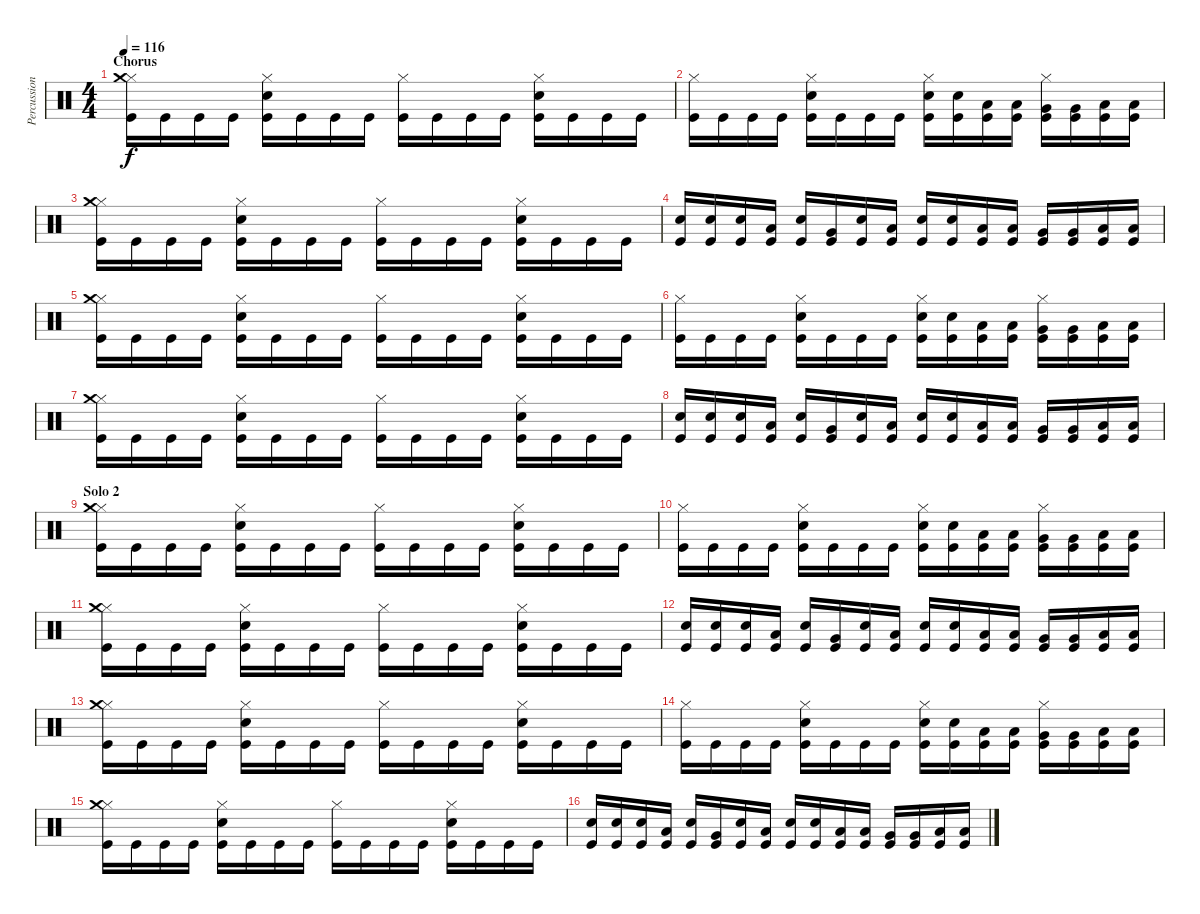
\track ("Percussion" "Percussion") {instrument percussion}
\staff {score}
\articulation defaults
\ts (4 4)
\section ("" "Chorus")
\tempo 116
\clef neutral
\ks c
("Hi-Hat (closed)" "Crash medium (hit)" "Kick (hit)").16{dy f} "Kick (hit)".16 "Kick (hit)".16 "Kick (hit)".16 ("Hi-Hat (closed)" "Snare (hit) 2" "Kick (hit)").16 "Kick (hit)".16 "Kick (hit)".16 "Kick (hit)".16 ("Hi-Hat (closed)" "Kick (hit)").16 "Kick (hit)".16 "Kick (hit)".16 "Kick (hit)".16 ("Hi-Hat (closed)" "Snare (hit) 2" "Kick (hit)").16 "Kick (hit)".16 "Kick (hit)".16 "Kick (hit)".16 |
("Hi-Hat (closed)" "Kick (hit)").16 "Kick (hit)".16 "Kick (hit)".16 "Kick (hit)".16 ("Hi-Hat (closed)" "Snare (hit) 2" "Kick (hit)").16 "Kick (hit)".16 "Kick (hit)".16 "Kick (hit)".16 ("Hi-Hat (closed)" "Snare (hit) 2" "Kick (hit)").16 ("Snare (hit) 2" "Kick (hit)").16 ("Low Tom (hit)" "Kick (hit)").16 ("Low Tom (hit)" "Kick (hit)").16 ("Hi-Hat (closed)" "Very Low Tom (hit)" "Kick (hit)").16 ("Very Low Tom (hit)" "Kick (hit)").16 ("Low Floor Tom (hit)" "Kick (hit)").16 ("Low Floor Tom (hit)" "Kick (hit)").16 |
("Hi-Hat (closed)" "Crash medium (hit)" "Kick (hit)").16 "Kick (hit)".16 "Kick (hit)".16 "Kick (hit)".16 ("Hi-Hat (closed)" "Snare (hit) 2" "Kick (hit)").16 "Kick (hit)".16 "Kick (hit)".16 "Kick (hit)".16 ("Hi-Hat (closed)" "Kick (hit)").16 "Kick (hit)".16 "Kick (hit)".16 "Kick (hit)".16 ("Hi-Hat (closed)" "Snare (hit) 2" "Kick (hit)").16 "Kick (hit)".16 "Kick (hit)".16 "Kick (hit)".16 |
("Snare (hit) 2" "Kick (hit)").16 ("Snare (hit) 2" "Kick (hit)").16 ("Snare (hit) 2" "Kick (hit)").16 ("Low Tom (hit)" "Kick (hit)").16 ("Snare (hit) 2" "Kick (hit)").16 ("Very Low Tom (hit)" "Kick (hit)").16 ("Snare (hit) 2" "Kick (hit)").16 ("Low Floor Tom (hit)" "Kick (hit)").16 ("Snare (hit) 2" "Kick (hit)").16 ("Snare (hit) 2" "Kick (hit)").16 ("Low Tom (hit)" "Kick (hit)").16 ("Low Tom (hit)" "Kick (hit)").16 ("Very Low Tom (hit)" "Kick (hit)").16 ("Very Low Tom (hit)" "Kick (hit)").16 ("Low Floor Tom (hit)" "Kick (hit)").16 ("Low Floor Tom (hit)" "Kick (hit)").16 |
("Hi-Hat (closed)" "Crash medium (hit)" "Kick (hit)").16 "Kick (hit)".16 "Kick (hit)".16 "Kick (hit)".16 ("Hi-Hat (closed)" "Snare (hit) 2" "Kick (hit)").16 "Kick (hit)".16 "Kick (hit)".16 "Kick (hit)".16 ("Hi-Hat (closed)" "Kick (hit)").16 "Kick (hit)".16 "Kick (hit)".16 "Kick (hit)".16 ("Hi-Hat (closed)" "Snare (hit) 2" "Kick (hit)").16 "Kick (hit)".16 "Kick (hit)".16 "Kick (hit)".16 |
("Hi-Hat (closed)" "Kick (hit)").16 "Kick (hit)".16 "Kick (hit)".16 "Kick (hit)".16 ("Hi-Hat (closed)" "Snare (hit) 2" "Kick (hit)").16 "Kick (hit)".16 "Kick (hit)".16 "Kick (hit)".16 ("Hi-Hat (closed)" "Snare (hit) 2" "Kick (hit)").16 ("Snare (hit) 2" "Kick (hit)").16 ("Low Tom (hit)" "Kick (hit)").16 ("Low Tom (hit)" "Kick (hit)").16 ("Hi-Hat (closed)" "Very Low Tom (hit)" "Kick (hit)").16 ("Very Low Tom (hit)" "Kick (hit)").16 ("Low Floor Tom (hit)" "Kick (hit)").16 ("Low Floor Tom (hit)" "Kick (hit)").16 |
("Hi-Hat (closed)" "Crash medium (hit)" "Kick (hit)").16 "Kick (hit)".16 "Kick (hit)".16 "Kick (hit)".16 ("Hi-Hat (closed)" "Snare (hit) 2" "Kick (hit)").16 "Kick (hit)".16 "Kick (hit)".16 "Kick (hit)".16 ("Hi-Hat (closed)" "Kick (hit)").16 "Kick (hit)".16 "Kick (hit)".16 "Kick (hit)".16 ("Hi-Hat (closed)" "Snare (hit) 2" "Kick (hit)").16 "Kick (hit)".16 "Kick (hit)".16 "Kick (hit)".16 |
("Snare (hit) 2" "Kick (hit)").16 ("Snare (hit) 2" "Kick (hit)").16 ("Snare (hit) 2" "Kick (hit)").16 ("Low Tom (hit)" "Kick (hit)").16 ("Snare (hit) 2" "Kick (hit)").16 ("Very Low Tom (hit)" "Kick (hit)").16 ("Snare (hit) 2" "Kick (hit)").16 ("Low Floor Tom (hit)" "Kick (hit)").16 ("Snare (hit) 2" "Kick (hit)").16 ("Snare (hit) 2" "Kick (hit)").16 ("Low Tom (hit)" "Kick (hit)").16 ("Low Tom (hit)" "Kick (hit)").16 ("Very Low Tom (hit)" "Kick (hit)").16 ("Very Low Tom (hit)" "Kick (hit)").16 ("Low Floor Tom (hit)" "Kick (hit)").16 ("Low Floor Tom (hit)" "Kick (hit)").16 |
\section ("" "Solo 2")
("Hi-Hat (closed)" "Crash medium (hit)" "Kick (hit)").16 "Kick (hit)".16 "Kick (hit)".16 "Kick (hit)".16 ("Hi-Hat (closed)" "Snare (hit) 2" "Kick (hit)").16 "Kick (hit)".16 "Kick (hit)".16 "Kick (hit)".16 ("Hi-Hat (closed)" "Kick (hit)").16 "Kick (hit)".16 "Kick (hit)".16 "Kick (hit)".16 ("Hi-Hat (closed)" "Snare (hit) 2" "Kick (hit)").16 "Kick (hit)".16 "Kick (hit)".16 "Kick (hit)".16 |
("Hi-Hat (closed)" "Kick (hit)").16 "Kick (hit)".16 "Kick (hit)".16 "Kick (hit)".16 ("Hi-Hat (closed)" "Snare (hit) 2" "Kick (hit)").16 "Kick (hit)".16 "Kick (hit)".16 "Kick (hit)".16 ("Hi-Hat (closed)" "Snare (hit) 2" "Kick (hit)").16 ("Snare (hit) 2" "Kick (hit)").16 ("Low Tom (hit)" "Kick (hit)").16 ("Low Tom (hit)" "Kick (hit)").16 ("Hi-Hat (closed)" "Very Low Tom (hit)" "Kick (hit)").16 ("Very Low Tom (hit)" "Kick (hit)").16 ("Low Floor Tom (hit)" "Kick (hit)").16 ("Low Floor Tom (hit)" "Kick (hit)").16 |
("Hi-Hat (closed)" "Crash medium (hit)" "Kick (hit)").16 "Kick (hit)".16 "Kick (hit)".16 "Kick (hit)".16 ("Hi-Hat (closed)" "Snare (hit) 2" "Kick (hit)").16 "Kick (hit)".16 "Kick (hit)".16 "Kick (hit)".16 ("Hi-Hat (closed)" "Kick (hit)").16 "Kick (hit)".16 "Kick (hit)".16 "Kick (hit)".16 ("Hi-Hat (closed)" "Snare (hit) 2" "Kick (hit)").16 "Kick (hit)".16 "Kick (hit)".16 "Kick (hit)".16 |
("Snare (hit) 2" "Kick (hit)").16 ("Snare (hit) 2" "Kick (hit)").16 ("Snare (hit) 2" "Kick (hit)").16 ("Low Tom (hit)" "Kick (hit)").16 ("Snare (hit) 2" "Kick (hit)").16 ("Very Low Tom (hit)" "Kick (hit)").16 ("Snare (hit) 2" "Kick (hit)").16 ("Low Floor Tom (hit)" "Kick (hit)").16 ("Snare (hit) 2" "Kick (hit)").16 ("Snare (hit) 2" "Kick (hit)").16 ("Low Tom (hit)" "Kick (hit)").16 ("Low Tom (hit)" "Kick (hit)").16 ("Very Low Tom (hit)" "Kick (hit)").16 ("Very Low Tom (hit)" "Kick (hit)").16 ("Low Floor Tom (hit)" "Kick (hit)").16 ("Low Floor Tom (hit)" "Kick (hit)").16 |
("Hi-Hat (closed)" "Crash medium (hit)" "Kick (hit)").16 "Kick (hit)".16 "Kick (hit)".16 "Kick (hit)".16 ("Hi-Hat (closed)" "Snare (hit) 2" "Kick (hit)").16 "Kick (hit)".16 "Kick (hit)".16 "Kick (hit)".16 ("Hi-Hat (closed)" "Kick (hit)").16 "Kick (hit)".16 "Kick (hit)".16 "Kick (hit)".16 ("Hi-Hat (closed)" "Snare (hit) 2" "Kick (hit)").16 "Kick (hit)".16 "Kick (hit)".16 "Kick (hit)".16 |
("Hi-Hat (closed)" "Kick (hit)").16 "Kick (hit)".16 "Kick (hit)".16 "Kick (hit)".16 ("Hi-Hat (closed)" "Snare (hit) 2" "Kick (hit)").16 "Kick (hit)".16 "Kick (hit)".16 "Kick (hit)".16 ("Hi-Hat (closed)" "Snare (hit) 2" "Kick (hit)").16 ("Snare (hit) 2" "Kick (hit)").16 ("Low Tom (hit)" "Kick (hit)").16 ("Low Tom (hit)" "Kick (hit)").16 ("Hi-Hat (closed)" "Very Low Tom (hit)" "Kick (hit)").16 ("Very Low Tom (hit)" "Kick (hit)").16 ("Low Floor Tom (hit)" "Kick (hit)").16 ("Low Floor Tom (hit)" "Kick (hit)").16 |
("Hi-Hat (closed)" "Crash medium (hit)" "Kick (hit)").16 "Kick (hit)".16 "Kick (hit)".16 "Kick (hit)".16 ("Hi-Hat (closed)" "Snare (hit) 2" "Kick (hit)").16 "Kick (hit)".16 "Kick (hit)".16 "Kick (hit)".16 ("Hi-Hat (closed)" "Kick (hit)").16 "Kick (hit)".16 "Kick (hit)".16 "Kick (hit)".16 ("Hi-Hat (closed)" "Snare (hit) 2" "Kick (hit)").16 "Kick (hit)".16 "Kick (hit)".16 "Kick (hit)".16 |
("Snare (hit) 2" "Kick (hit)").16 ("Snare (hit) 2" "Kick (hit)").16 ("Snare (hit) 2" "Kick (hit)").16 ("Low Tom (hit)" "Kick (hit)").16 ("Snare (hit) 2" "Kick (hit)").16 ("Very Low Tom (hit)" "Kick (hit)").16 ("Snare (hit) 2" "Kick (hit)").16 ("Low Floor Tom (hit)" "Kick (hit)").16 ("Snare (hit) 2" "Kick (hit)").16 ("Snare (hit) 2" "Kick (hit)").16 ("Low Tom (hit)" "Kick (hit)").16 ("Low Tom (hit)" "Kick (hit)").16 ("Very Low Tom (hit)" "Kick (hit)").16 ("Very Low Tom (hit)" "Kick (hit)").16 ("Low Floor Tom (hit)" "Kick (hit)").16 ("Low Floor Tom (hit)" "Kick (hit)").16
